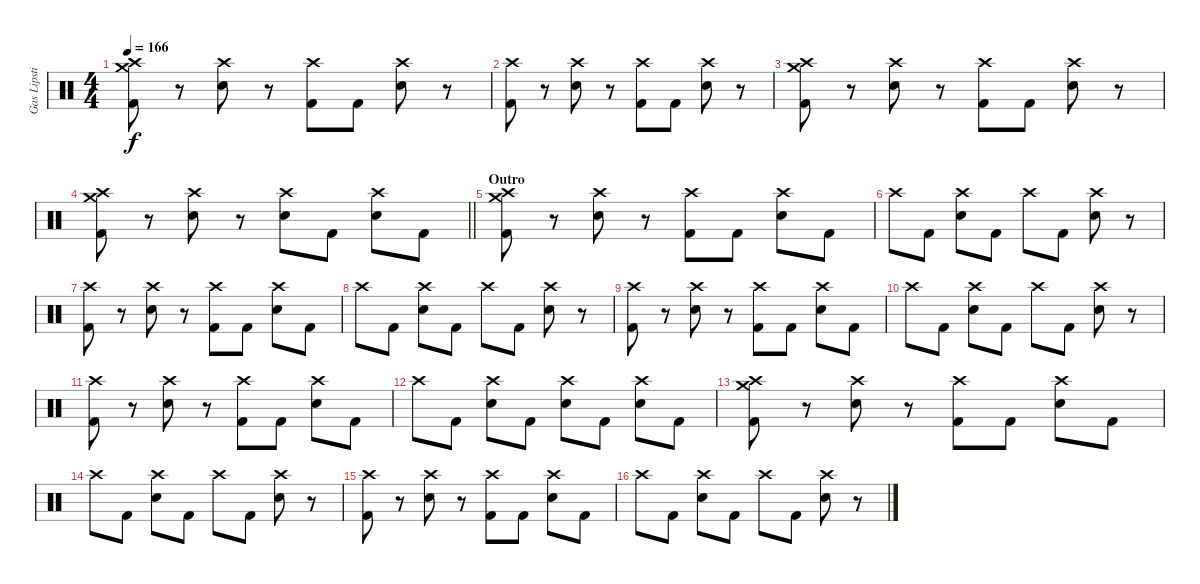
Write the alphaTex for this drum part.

\track ("Gas Lipstick (Drums)" "Gas Lipsti") {instrument percussion}
\staff {score}
\articulation defaults
\ts (4 4)
\tempo 166
\clef neutral
\ks c
("Crash medium (hit)" "Crash high (hit)" "Kick (hit) 2").8{dy f} r.8 ("Crash high (hit)" "Snare (hit) 2").8 r.8 ("Crash high (hit)" "Kick (hit) 2").8 "Kick (hit) 2".8 ("Crash high (hit)" "Snare (hit) 2").8 r.8 |
("Crash high (hit)" "Kick (hit) 2").8 r.8 ("Crash high (hit)" "Snare (hit) 2").8 r.8 ("Crash high (hit)" "Kick (hit) 2").8 "Kick (hit) 2".8 ("Crash high (hit)" "Snare (hit) 2").8 r.8 |
("Crash medium (hit)" "Crash high (hit)" "Kick (hit) 2").8 r.8 ("Crash high (hit)" "Snare (hit) 2").8 r.8 ("Crash high (hit)" "Kick (hit) 2").8 "Kick (hit) 2".8 ("Crash high (hit)" "Snare (hit) 2").8 r.8 |
\barLineRight lightlight
("Crash medium (hit)" "Crash high (hit)" "Kick (hit) 2").8 r.8 ("Crash high (hit)" "Snare (hit) 2").8 r.8 ("Crash high (hit)" "Snare (hit) 2").8 "Kick (hit) 2".8 ("Crash high (hit)" "Snare (hit) 2").8 "Kick (hit) 2".8 |
\section ("" "Outro")
("Crash medium (hit)" "Crash high (hit)" "Kick (hit) 2").8 r.8 ("Crash high (hit)" "Snare (hit) 2").8 r.8 ("Crash high (hit)" "Kick (hit) 2").8 "Kick (hit) 2".8 ("Crash high (hit)" "Snare (hit) 2").8 "Kick (hit) 2".8 |
"Crash high (hit)".8 "Kick (hit) 2".8 ("Crash high (hit)" "Snare (hit) 2").8 "Kick (hit) 2".8 "Crash high (hit)".8 "Kick (hit) 2".8 ("Crash high (hit)" "Snare (hit) 2").8 r.8 |
("Crash high (hit)" "Kick (hit) 2").8 r.8 ("Crash high (hit)" "Snare (hit) 2").8 r.8 ("Crash high (hit)" "Kick (hit) 2").8 "Kick (hit) 2".8 ("Crash high (hit)" "Snare (hit) 2").8 "Kick (hit) 2".8 |
"Crash high (hit)".8 "Kick (hit) 2".8 ("Crash high (hit)" "Snare (hit) 2").8 "Kick (hit) 2".8 "Crash high (hit)".8 "Kick (hit) 2".8 ("Crash high (hit)" "Snare (hit) 2").8 r.8 |
("Crash high (hit)" "Kick (hit) 2").8 r.8 ("Crash high (hit)" "Snare (hit) 2").8 r.8 ("Crash high (hit)" "Kick (hit) 2").8 "Kick (hit) 2".8 ("Crash high (hit)" "Snare (hit) 2").8 "Kick (hit) 2".8 |
"Crash high (hit)".8 "Kick (hit) 2".8 ("Crash high (hit)" "Snare (hit) 2").8 "Kick (hit) 2".8 "Crash high (hit)".8 "Kick (hit) 2".8 ("Crash high (hit)" "Snare (hit) 2").8 r.8 |
("Crash high (hit)" "Kick (hit) 2").8 r.8 ("Crash high (hit)" "Snare (hit) 2").8 r.8 ("Crash high (hit)" "Kick (hit) 2").8 "Kick (hit) 2".8 ("Crash high (hit)" "Snare (hit) 2").8 "Kick (hit) 2".8 |
"Crash high (hit)".8 "Kick (hit) 2".8 ("Crash high (hit)" "Snare (hit) 2").8 "Kick (hit) 2".8 ("Crash high (hit)" "Snare (hit) 2").8 "Kick (hit) 2".8 ("Crash high (hit)" "Snare (hit) 2").8 "Kick (hit) 2".8 |
("Crash medium (hit)" "Crash high (hit)" "Kick (hit) 2").8 r.8 ("Crash high (hit)" "Snare (hit) 2").8 r.8 ("Crash high (hit)" "Kick (hit) 2").8 "Kick (hit) 2".8 ("Crash high (hit)" "Snare (hit) 2").8 "Kick (hit) 2".8 |
"Crash high (hit)".8 "Kick (hit) 2".8 ("Crash high (hit)" "Snare (hit) 2").8 "Kick (hit) 2".8 "Crash high (hit)".8 "Kick (hit) 2".8 ("Crash high (hit)" "Snare (hit) 2").8 r.8 |
("Crash high (hit)" "Kick (hit) 2").8 r.8 ("Crash high (hit)" "Snare (hit) 2").8 r.8 ("Crash high (hit)" "Kick (hit) 2").8 "Kick (hit) 2".8 ("Crash high (hit)" "Snare (hit) 2").8 "Kick (hit) 2".8 |
"Crash high (hit)".8 "Kick (hit) 2".8 ("Crash high (hit)" "Snare (hit) 2").8 "Kick (hit) 2".8 "Crash high (hit)".8 "Kick (hit) 2".8 ("Crash high (hit)" "Snare (hit) 2").8 r.8
